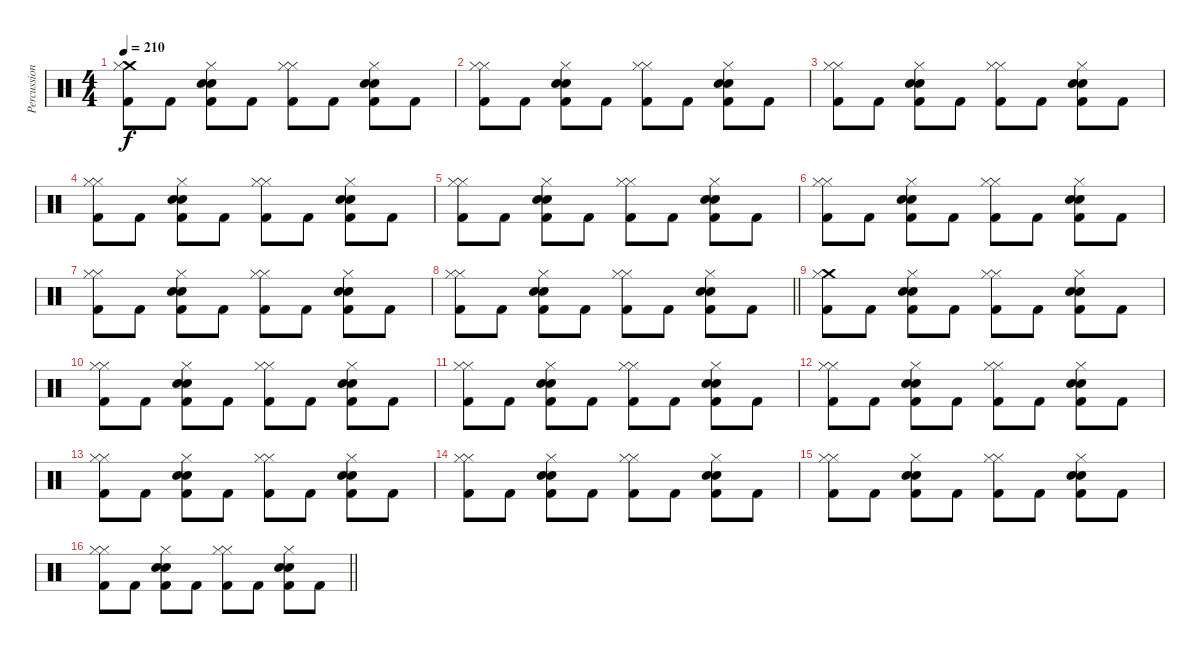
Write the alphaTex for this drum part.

\track ("Percussion" "Percussion") {instrument percussion}
\staff {score}
\articulation defaults
\ts (4 4)
\tempo 210
\clef neutral
\ks c
("Crash medium (hit)" "Hi-Hat (closed)" "Kick (hit) 2").8{dy f} "Kick (hit) 2".8 ("Hi-Hat (closed)" "Snare (hit) 2" "Electric Snare (hit)" "Kick (hit) 2").8 "Kick (hit) 2".8 ("Hi-Hat (closed)" "Hi-Hat (closed)" "Kick (hit) 2").8 "Kick (hit) 2".8 ("Hi-Hat (closed)" "Snare (hit) 2" "Electric Snare (hit)" "Kick (hit) 2").8 "Kick (hit) 2".8 |
("Hi-Hat (closed)" "Hi-Hat (closed)" "Kick (hit) 2").8 "Kick (hit) 2".8 ("Hi-Hat (closed)" "Snare (hit) 2" "Electric Snare (hit)" "Kick (hit) 2").8 "Kick (hit) 2".8 ("Hi-Hat (closed)" "Hi-Hat (closed)" "Kick (hit) 2").8 "Kick (hit) 2".8 ("Hi-Hat (closed)" "Snare (hit) 2" "Electric Snare (hit)" "Kick (hit) 2").8 "Kick (hit) 2".8 |
("Hi-Hat (closed)" "Hi-Hat (closed)" "Kick (hit) 2").8 "Kick (hit) 2".8 ("Hi-Hat (closed)" "Snare (hit) 2" "Electric Snare (hit)" "Kick (hit) 2").8 "Kick (hit) 2".8 ("Hi-Hat (closed)" "Hi-Hat (closed)" "Kick (hit) 2").8 "Kick (hit) 2".8 ("Hi-Hat (closed)" "Snare (hit) 2" "Electric Snare (hit)" "Kick (hit) 2").8 "Kick (hit) 2".8 |
("Hi-Hat (closed)" "Hi-Hat (closed)" "Kick (hit) 2").8 "Kick (hit) 2".8 ("Hi-Hat (closed)" "Snare (hit) 2" "Electric Snare (hit)" "Kick (hit) 2").8 "Kick (hit) 2".8 ("Hi-Hat (closed)" "Hi-Hat (closed)" "Kick (hit) 2").8 "Kick (hit) 2".8 ("Hi-Hat (closed)" "Snare (hit) 2" "Electric Snare (hit)" "Kick (hit) 2").8 "Kick (hit) 2".8 |
("Hi-Hat (closed)" "Hi-Hat (closed)" "Kick (hit) 2").8 "Kick (hit) 2".8 ("Hi-Hat (closed)" "Snare (hit) 2" "Electric Snare (hit)" "Kick (hit) 2").8 "Kick (hit) 2".8 ("Hi-Hat (closed)" "Hi-Hat (closed)" "Kick (hit) 2").8 "Kick (hit) 2".8 ("Hi-Hat (closed)" "Snare (hit) 2" "Electric Snare (hit)" "Kick (hit) 2").8 "Kick (hit) 2".8 |
("Hi-Hat (closed)" "Hi-Hat (closed)" "Kick (hit) 2").8 "Kick (hit) 2".8 ("Hi-Hat (closed)" "Snare (hit) 2" "Electric Snare (hit)" "Kick (hit) 2").8 "Kick (hit) 2".8 ("Hi-Hat (closed)" "Hi-Hat (closed)" "Kick (hit) 2").8 "Kick (hit) 2".8 ("Hi-Hat (closed)" "Snare (hit) 2" "Electric Snare (hit)" "Kick (hit) 2").8 "Kick (hit) 2".8 |
("Hi-Hat (closed)" "Hi-Hat (closed)" "Kick (hit) 2").8 "Kick (hit) 2".8 ("Hi-Hat (closed)" "Snare (hit) 2" "Electric Snare (hit)" "Kick (hit) 2").8 "Kick (hit) 2".8 ("Hi-Hat (closed)" "Hi-Hat (closed)" "Kick (hit) 2").8 "Kick (hit) 2".8 ("Hi-Hat (closed)" "Snare (hit) 2" "Electric Snare (hit)" "Kick (hit) 2").8 "Kick (hit) 2".8 |
\barLineRight lightlight
("Hi-Hat (closed)" "Hi-Hat (closed)" "Kick (hit) 2").8 "Kick (hit) 2".8 ("Hi-Hat (closed)" "Snare (hit) 2" "Electric Snare (hit)" "Kick (hit) 2").8 "Kick (hit) 2".8 ("Hi-Hat (closed)" "Hi-Hat (closed)" "Kick (hit) 2").8 "Kick (hit) 2".8 ("Hi-Hat (closed)" "Snare (hit) 2" "Electric Snare (hit)" "Kick (hit) 2").8 "Kick (hit) 2".8 |
("Crash medium (hit)" "Hi-Hat (closed)" "Kick (hit) 2").8 "Kick (hit) 2".8 ("Hi-Hat (closed)" "Snare (hit) 2" "Electric Snare (hit)" "Kick (hit) 2").8 "Kick (hit) 2".8 ("Hi-Hat (closed)" "Hi-Hat (closed)" "Kick (hit) 2").8 "Kick (hit) 2".8 ("Hi-Hat (closed)" "Snare (hit) 2" "Electric Snare (hit)" "Kick (hit) 2").8 "Kick (hit) 2".8 |
("Hi-Hat (closed)" "Hi-Hat (closed)" "Kick (hit) 2").8 "Kick (hit) 2".8 ("Hi-Hat (closed)" "Snare (hit) 2" "Electric Snare (hit)" "Kick (hit) 2").8 "Kick (hit) 2".8 ("Hi-Hat (closed)" "Hi-Hat (closed)" "Kick (hit) 2").8 "Kick (hit) 2".8 ("Hi-Hat (closed)" "Snare (hit) 2" "Electric Snare (hit)" "Kick (hit) 2").8 "Kick (hit) 2".8 |
("Hi-Hat (closed)" "Hi-Hat (closed)" "Kick (hit) 2").8 "Kick (hit) 2".8 ("Hi-Hat (closed)" "Snare (hit) 2" "Electric Snare (hit)" "Kick (hit) 2").8 "Kick (hit) 2".8 ("Hi-Hat (closed)" "Hi-Hat (closed)" "Kick (hit) 2").8 "Kick (hit) 2".8 ("Hi-Hat (closed)" "Snare (hit) 2" "Electric Snare (hit)" "Kick (hit) 2").8 "Kick (hit) 2".8 |
("Hi-Hat (closed)" "Hi-Hat (closed)" "Kick (hit) 2").8 "Kick (hit) 2".8 ("Hi-Hat (closed)" "Snare (hit) 2" "Electric Snare (hit)" "Kick (hit) 2").8 "Kick (hit) 2".8 ("Hi-Hat (closed)" "Hi-Hat (closed)" "Kick (hit) 2").8 "Kick (hit) 2".8 ("Hi-Hat (closed)" "Snare (hit) 2" "Electric Snare (hit)" "Kick (hit) 2").8 "Kick (hit) 2".8 |
("Hi-Hat (closed)" "Hi-Hat (closed)" "Kick (hit) 2").8 "Kick (hit) 2".8 ("Hi-Hat (closed)" "Snare (hit) 2" "Electric Snare (hit)" "Kick (hit) 2").8 "Kick (hit) 2".8 ("Hi-Hat (closed)" "Hi-Hat (closed)" "Kick (hit) 2").8 "Kick (hit) 2".8 ("Hi-Hat (closed)" "Snare (hit) 2" "Electric Snare (hit)" "Kick (hit) 2").8 "Kick (hit) 2".8 |
("Hi-Hat (closed)" "Hi-Hat (closed)" "Kick (hit) 2").8 "Kick (hit) 2".8 ("Hi-Hat (closed)" "Snare (hit) 2" "Electric Snare (hit)" "Kick (hit) 2").8 "Kick (hit) 2".8 ("Hi-Hat (closed)" "Hi-Hat (closed)" "Kick (hit) 2").8 "Kick (hit) 2".8 ("Hi-Hat (closed)" "Snare (hit) 2" "Electric Snare (hit)" "Kick (hit) 2").8 "Kick (hit) 2".8 |
("Hi-Hat (closed)" "Hi-Hat (closed)" "Kick (hit) 2").8 "Kick (hit) 2".8 ("Hi-Hat (closed)" "Snare (hit) 2" "Electric Snare (hit)" "Kick (hit) 2").8 "Kick (hit) 2".8 ("Hi-Hat (closed)" "Hi-Hat (closed)" "Kick (hit) 2").8 "Kick (hit) 2".8 ("Hi-Hat (closed)" "Snare (hit) 2" "Electric Snare (hit)" "Kick (hit) 2").8 "Kick (hit) 2".8 |
\barLineRight lightlight
("Hi-Hat (closed)" "Hi-Hat (closed)" "Kick (hit) 2").8 "Kick (hit) 2".8 ("Hi-Hat (closed)" "Snare (hit) 2" "Electric Snare (hit)" "Kick (hit) 2").8 "Kick (hit) 2".8 ("Hi-Hat (closed)" "Hi-Hat (closed)" "Kick (hit) 2").8 "Kick (hit) 2".8 ("Hi-Hat (closed)" "Snare (hit) 2" "Electric Snare (hit)" "Kick (hit) 2").8 "Kick (hit) 2".8
